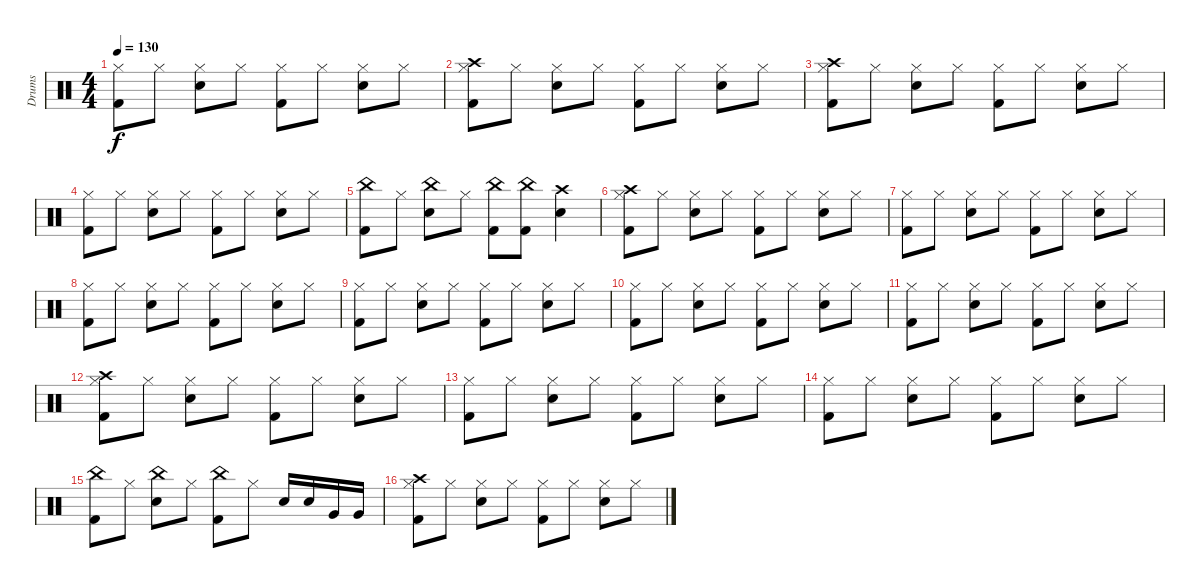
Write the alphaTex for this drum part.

\track ("Drums" "Drums") {instrument percussion}
\staff {score}
\articulation defaults
\ts (4 4)
\tempo 130
\clef neutral
\ks c
("Hi-Hat (closed)" "Kick (hit) 2").8{dy f} "Hi-Hat (closed)".8 ("Hi-Hat (closed)" "Electric Snare (hit)").8 "Hi-Hat (closed)".8 ("Hi-Hat (closed)" "Kick (hit) 2").8 "Hi-Hat (closed)".8 ("Hi-Hat (closed)" "Electric Snare (hit)").8 "Hi-Hat (closed)".8 |
("Crash high (hit)" "Kick (hit) 2" "Hi-Hat (closed)").8 "Hi-Hat (closed)".8 ("Hi-Hat (closed)" "Electric Snare (hit)").8 "Hi-Hat (closed)".8 ("Hi-Hat (closed)" "Kick (hit) 2").8 "Hi-Hat (closed)".8 ("Hi-Hat (closed)" "Electric Snare (hit)").8 "Hi-Hat (closed)".8 |
("Hi-Hat (closed)" "Kick (hit) 2" "Crash high (hit)").8 "Hi-Hat (closed)".8 ("Hi-Hat (closed)" "Electric Snare (hit)").8 "Hi-Hat (closed)".8 ("Hi-Hat (closed)" "Kick (hit) 2").8 "Hi-Hat (closed)".8 ("Hi-Hat (closed)" "Electric Snare (hit)").8 "Hi-Hat (closed)".8 |
("Hi-Hat (closed)" "Kick (hit) 2").8 "Hi-Hat (closed)".8 ("Hi-Hat (closed)" "Electric Snare (hit)").8 "Hi-Hat (closed)".8 ("Hi-Hat (closed)" "Kick (hit) 2").8 "Hi-Hat (closed)".8 ("Hi-Hat (closed)" "Electric Snare (hit)").8 "Hi-Hat (closed)".8 |
("China (hit)" "Kick (hit) 2").8 "Hi-Hat (closed)".8 ("China (hit)" "Electric Snare (hit)").8 "Hi-Hat (closed)".8 ("China (hit)" "Kick (hit) 2").8 ("China (hit)" "Kick (hit) 2").8 ("Crash high (hit)" "Electric Snare (hit)").4 |
("Hi-Hat (closed)" "Kick (hit) 2" "Crash high (hit)").8 "Hi-Hat (closed)".8 ("Hi-Hat (closed)" "Electric Snare (hit)").8 "Hi-Hat (closed)".8 ("Hi-Hat (closed)" "Kick (hit) 2").8 "Hi-Hat (closed)".8 ("Hi-Hat (closed)" "Electric Snare (hit)").8 "Hi-Hat (closed)".8 |
("Hi-Hat (closed)" "Kick (hit) 2").8 "Hi-Hat (closed)".8 ("Hi-Hat (closed)" "Electric Snare (hit)").8 "Hi-Hat (closed)".8 ("Hi-Hat (closed)" "Kick (hit) 2").8 "Hi-Hat (closed)".8 ("Hi-Hat (closed)" "Electric Snare (hit)").8 "Hi-Hat (closed)".8 |
("Hi-Hat (closed)" "Kick (hit) 2").8 "Hi-Hat (closed)".8 ("Hi-Hat (closed)" "Electric Snare (hit)").8 "Hi-Hat (closed)".8 ("Hi-Hat (closed)" "Kick (hit) 2").8 "Hi-Hat (closed)".8 ("Hi-Hat (closed)" "Electric Snare (hit)").8 "Hi-Hat (closed)".8 |
("Hi-Hat (closed)" "Kick (hit) 2").8 "Hi-Hat (closed)".8 ("Hi-Hat (closed)" "Electric Snare (hit)").8 "Hi-Hat (closed)".8 ("Hi-Hat (closed)" "Kick (hit) 2").8 "Hi-Hat (closed)".8 ("Hi-Hat (closed)" "Electric Snare (hit)").8 "Hi-Hat (closed)".8 |
("Hi-Hat (closed)" "Kick (hit) 2").8 "Hi-Hat (closed)".8 ("Hi-Hat (closed)" "Electric Snare (hit)").8 "Hi-Hat (closed)".8 ("Hi-Hat (closed)" "Kick (hit) 2").8 "Hi-Hat (closed)".8 ("Hi-Hat (closed)" "Electric Snare (hit)").8 "Hi-Hat (closed)".8 |
("Hi-Hat (closed)" "Kick (hit) 2").8 "Hi-Hat (closed)".8 ("Hi-Hat (closed)" "Electric Snare (hit)").8 "Hi-Hat (closed)".8 ("Hi-Hat (closed)" "Kick (hit) 2").8 "Hi-Hat (closed)".8 ("Hi-Hat (closed)" "Electric Snare (hit)").8 "Hi-Hat (closed)".8 |
("Hi-Hat (closed)" "Kick (hit) 2" "Crash high (hit)").8 "Hi-Hat (closed)".8 ("Hi-Hat (closed)" "Electric Snare (hit)").8 "Hi-Hat (closed)".8 ("Hi-Hat (closed)" "Kick (hit) 2").8 "Hi-Hat (closed)".8 ("Hi-Hat (closed)" "Electric Snare (hit)").8 "Hi-Hat (closed)".8 |
("Hi-Hat (closed)" "Kick (hit) 2").8 "Hi-Hat (closed)".8 ("Hi-Hat (closed)" "Electric Snare (hit)").8 "Hi-Hat (closed)".8 ("Hi-Hat (closed)" "Kick (hit) 2").8 "Hi-Hat (closed)".8 ("Hi-Hat (closed)" "Electric Snare (hit)").8 "Hi-Hat (closed)".8 |
("Hi-Hat (closed)" "Kick (hit) 2").8 "Hi-Hat (closed)".8 ("Hi-Hat (closed)" "Electric Snare (hit)").8 "Hi-Hat (closed)".8 ("Hi-Hat (closed)" "Kick (hit) 2").8 "Hi-Hat (closed)".8 ("Hi-Hat (closed)" "Electric Snare (hit)").8 "Hi-Hat (closed)".8 |
("China (hit)" "Kick (hit) 2").8 "Hi-Hat (closed)".8 ("China (hit)" "Electric Snare (hit)").8 "Hi-Hat (closed)".8 ("China (hit)" "Kick (hit) 2").8 "Hi-Hat (closed)".8 "Electric Snare (hit)".16 "Electric Snare (hit)".16 "Very Low Tom (hit)".16 "Very Low Tom (hit)".16 |
("Hi-Hat (closed)" "Kick (hit) 2" "Crash high (hit)").8 "Hi-Hat (closed)".8 ("Hi-Hat (closed)" "Electric Snare (hit)").8 "Hi-Hat (closed)".8 ("Hi-Hat (closed)" "Kick (hit) 2").8 "Hi-Hat (closed)".8 ("Hi-Hat (closed)" "Electric Snare (hit)").8 "Hi-Hat (closed)".8
